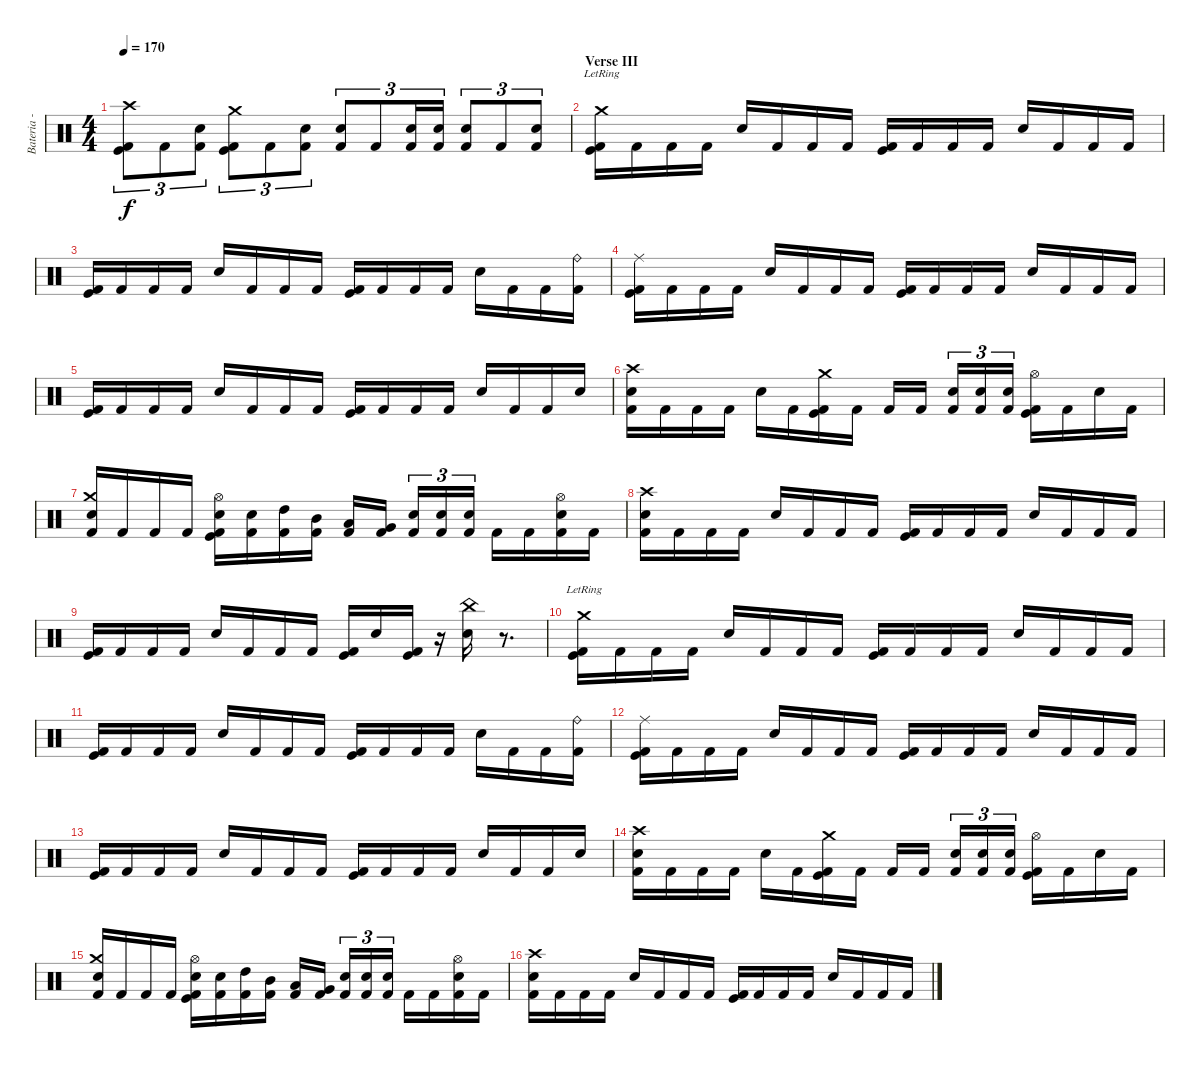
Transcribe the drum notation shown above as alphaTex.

\track ("Bateria - Drums" "Bateria - ") {instrument percussion}
\staff {score}
\articulation defaults
\ts (4 4)
\tempo 170
\clef neutral
\ks c
("Crash high (hit)" "Kick (hit)" "Kick (hit) 2").8{tu (3 2) dy f} "Kick (hit) 2".8{tu (3 2)} ("Electric Snare (hit)" "Kick (hit) 2").8{tu (3 2)} ("Crash medium (hit)" "Kick (hit)" "Kick (hit) 2").8{tu (3 2)} "Kick (hit) 2".8{tu (3 2)} ("Snare (hit) 2" "Kick (hit) 2").8{tu (3 2)} ("Snare (hit) 2" "Kick (hit) 2").8{tu (3 2)} "Kick (hit) 2".8{tu (3 2)} ("Electric Snare (hit)" "Kick (hit) 2").16{tu (3 2)} ("Electric Snare (hit)" "Kick (hit) 2").16{tu (3 2)} ("Electric Snare (hit)" "Kick (hit) 2").8{tu (3 2)} "Kick (hit) 2".8{tu (3 2)} ("Snare (hit) 2" "Kick (hit) 2").8{tu (3 2)} |
\section ("" "Verse III")
("Crash medium (hit)"{lr} "Kick (hit)" "Kick (hit) 2").16 "Kick (hit) 2".16 "Kick (hit) 2".16 "Kick (hit) 2".16 "Snare (hit) 2".16 "Kick (hit) 2".16 "Kick (hit) 2".16 "Kick (hit) 2".16 ("Kick (hit)" "Kick (hit) 2").16 "Kick (hit) 2".16 "Kick (hit) 2".16 "Kick (hit) 2".16 "Snare (hit) 2".16 "Kick (hit) 2".16 "Kick (hit) 2".16 "Kick (hit) 2".16 |
("Kick (hit)" "Kick (hit) 2").16 "Kick (hit) 2".16 "Kick (hit) 2".16 "Kick (hit) 2".16 "Snare (hit) 2".16 "Kick (hit) 2".16 "Kick (hit) 2".16 "Kick (hit) 2".16 ("Kick (hit)" "Kick (hit) 2").16 "Kick (hit) 2".16 "Kick (hit) 2".16 "Kick (hit) 2".16 "Snare (hit) 2".16 "Kick (hit) 2".16 "Kick (hit) 2".16 ("Ride (bell)" "Kick (hit) 2").16 |
("Ride (middle)" "Kick (hit)" "Kick (hit) 2").16 "Kick (hit) 2".16 "Kick (hit) 2".16 "Kick (hit) 2".16 "Snare (hit) 2".16 "Kick (hit) 2".16 "Kick (hit) 2".16 "Kick (hit) 2".16 ("Kick (hit)" "Kick (hit) 2").16 "Kick (hit) 2".16 "Kick (hit) 2".16 "Kick (hit) 2".16 "Snare (hit) 2".16 "Kick (hit) 2".16 "Kick (hit) 2".16 "Kick (hit) 2".16 |
("Kick (hit)" "Kick (hit) 2").16 "Kick (hit) 2".16 "Kick (hit) 2".16 "Kick (hit) 2".16 "Snare (hit) 2".16 "Kick (hit) 2".16 "Kick (hit) 2".16 "Kick (hit) 2".16 ("Kick (hit)" "Kick (hit) 2").16 "Kick (hit) 2".16 "Kick (hit) 2".16 "Kick (hit) 2".16 "Snare (hit) 2".16 "Kick (hit) 2".16 "Kick (hit) 2".16 "Snare (hit) 2".16 |
("Crash high (hit)" "Snare (hit) 2" "Kick (hit) 2").16 "Kick (hit) 2".16 "Kick (hit) 2".16 "Kick (hit) 2".16 "Snare (hit) 2".16 "Kick (hit) 2".16 ("Crash medium (hit)" "Kick (hit)" "Kick (hit) 2").16 "Kick (hit) 2".16 "Kick (hit) 2".16 "Kick (hit) 2".16 ("Snare (hit) 2" "Kick (hit) 2").16{tu (3 2)} ("Snare (hit) 2" "Kick (hit) 2").16{tu (3 2)} ("Snare (hit) 2" "Kick (hit) 2").16{tu (3 2)} ("Hi-Hat (open)" "Kick (hit)" "Kick (hit) 2").16 "Kick (hit) 2".16 "Snare (hit) 2".16 "Kick (hit) 2".16 |
("Crash medium (hit)" "Snare (hit) 2" "Kick (hit) 2").16 "Kick (hit) 2".16 "Kick (hit) 2".16 "Kick (hit) 2".16 ("Hi-Hat (open)" "Snare (hit) 2" "Kick (hit)" "Kick (hit) 2").16 ("Snare (hit) 2" "Kick (hit) 2").16 ("High Tom (hit)" "Kick (hit) 2").16 ("Mid Tom (hit)" "Kick (hit) 2").16 ("Low Tom (hit)" "Kick (hit) 2").16 ("Very Low Tom (hit)" "Kick (hit) 2").16 ("Electric Snare (hit)" "Kick (hit) 2").16{tu (3 2)} ("Electric Snare (hit)" "Kick (hit) 2").16{tu (3 2)} ("Electric Snare (hit)" "Kick (hit) 2").16{tu (3 2)} "Kick (hit) 2".16 "Kick (hit) 2".16 ("Hi-Hat (open)" "Snare (hit) 2" "Kick (hit) 2").16 "Kick (hit) 2".16 |
("Crash high (hit)" "Snare (hit) 2" "Kick (hit) 2").16 "Kick (hit) 2".16 "Kick (hit) 2".16 "Kick (hit) 2".16 "Snare (hit) 2".16 "Kick (hit) 2".16 "Kick (hit) 2".16 "Kick (hit) 2".16 ("Kick (hit)" "Kick (hit) 2").16 "Kick (hit) 2".16 "Kick (hit) 2".16 "Kick (hit) 2".16 "Snare (hit) 2".16 "Kick (hit) 2".16 "Kick (hit) 2".16 "Kick (hit) 2".16 |
("Kick (hit)" "Kick (hit) 2").16 "Kick (hit) 2".16 "Kick (hit) 2".16 "Kick (hit) 2".16 "Snare (hit) 2".16 "Kick (hit) 2".16 "Kick (hit) 2".16 "Kick (hit) 2".16 ("Kick (hit)" "Kick (hit) 2").16 "Snare (hit) 2".16 ("Kick (hit)" "Kick (hit) 2").16 r.16 ("China (hit)" "Snare (hit) 2").16 r.8{d} |
("Crash medium (hit)"{lr} "Kick (hit)" "Kick (hit) 2").16 "Kick (hit) 2".16 "Kick (hit) 2".16 "Kick (hit) 2".16 "Snare (hit) 2".16 "Kick (hit) 2".16 "Kick (hit) 2".16 "Kick (hit) 2".16 ("Kick (hit)" "Kick (hit) 2").16 "Kick (hit) 2".16 "Kick (hit) 2".16 "Kick (hit) 2".16 "Snare (hit) 2".16 "Kick (hit) 2".16 "Kick (hit) 2".16 "Kick (hit) 2".16 |
("Kick (hit)" "Kick (hit) 2").16 "Kick (hit) 2".16 "Kick (hit) 2".16 "Kick (hit) 2".16 "Snare (hit) 2".16 "Kick (hit) 2".16 "Kick (hit) 2".16 "Kick (hit) 2".16 ("Kick (hit)" "Kick (hit) 2").16 "Kick (hit) 2".16 "Kick (hit) 2".16 "Kick (hit) 2".16 "Snare (hit) 2".16 "Kick (hit) 2".16 "Kick (hit) 2".16 ("Ride (bell)" "Kick (hit) 2").16 |
("Ride (middle)" "Kick (hit)" "Kick (hit) 2").16 "Kick (hit) 2".16 "Kick (hit) 2".16 "Kick (hit) 2".16 "Snare (hit) 2".16 "Kick (hit) 2".16 "Kick (hit) 2".16 "Kick (hit) 2".16 ("Kick (hit)" "Kick (hit) 2").16 "Kick (hit) 2".16 "Kick (hit) 2".16 "Kick (hit) 2".16 "Snare (hit) 2".16 "Kick (hit) 2".16 "Kick (hit) 2".16 "Kick (hit) 2".16 |
("Kick (hit)" "Kick (hit) 2").16 "Kick (hit) 2".16 "Kick (hit) 2".16 "Kick (hit) 2".16 "Snare (hit) 2".16 "Kick (hit) 2".16 "Kick (hit) 2".16 "Kick (hit) 2".16 ("Kick (hit)" "Kick (hit) 2").16 "Kick (hit) 2".16 "Kick (hit) 2".16 "Kick (hit) 2".16 "Snare (hit) 2".16 "Kick (hit) 2".16 "Kick (hit) 2".16 "Snare (hit) 2".16 |
("Crash high (hit)" "Snare (hit) 2" "Kick (hit) 2").16 "Kick (hit) 2".16 "Kick (hit) 2".16 "Kick (hit) 2".16 "Snare (hit) 2".16 "Kick (hit) 2".16 ("Crash medium (hit)" "Kick (hit)" "Kick (hit) 2").16 "Kick (hit) 2".16 "Kick (hit) 2".16 "Kick (hit) 2".16 ("Snare (hit) 2" "Kick (hit) 2").16{tu (3 2)} ("Snare (hit) 2" "Kick (hit) 2").16{tu (3 2)} ("Snare (hit) 2" "Kick (hit) 2").16{tu (3 2)} ("Hi-Hat (open)" "Kick (hit)" "Kick (hit) 2").16 "Kick (hit) 2".16 "Snare (hit) 2".16 "Kick (hit) 2".16 |
("Crash medium (hit)" "Snare (hit) 2" "Kick (hit) 2").16 "Kick (hit) 2".16 "Kick (hit) 2".16 "Kick (hit) 2".16 ("Hi-Hat (open)" "Snare (hit) 2" "Kick (hit)" "Kick (hit) 2").16 ("Snare (hit) 2" "Kick (hit) 2").16 ("High Tom (hit)" "Kick (hit) 2").16 ("Mid Tom (hit)" "Kick (hit) 2").16 ("Low Tom (hit)" "Kick (hit) 2").16 ("Very Low Tom (hit)" "Kick (hit) 2").16 ("Electric Snare (hit)" "Kick (hit) 2").16{tu (3 2)} ("Electric Snare (hit)" "Kick (hit) 2").16{tu (3 2)} ("Electric Snare (hit)" "Kick (hit) 2").16{tu (3 2)} "Kick (hit) 2".16 "Kick (hit) 2".16 ("Hi-Hat (open)" "Snare (hit) 2" "Kick (hit) 2").16 "Kick (hit) 2".16 |
("Crash high (hit)" "Snare (hit) 2" "Kick (hit) 2").16 "Kick (hit) 2".16 "Kick (hit) 2".16 "Kick (hit) 2".16 "Snare (hit) 2".16 "Kick (hit) 2".16 "Kick (hit) 2".16 "Kick (hit) 2".16 ("Kick (hit)" "Kick (hit) 2").16 "Kick (hit) 2".16 "Kick (hit) 2".16 "Kick (hit) 2".16 "Snare (hit) 2".16 "Kick (hit) 2".16 "Kick (hit) 2".16 "Kick (hit) 2".16
